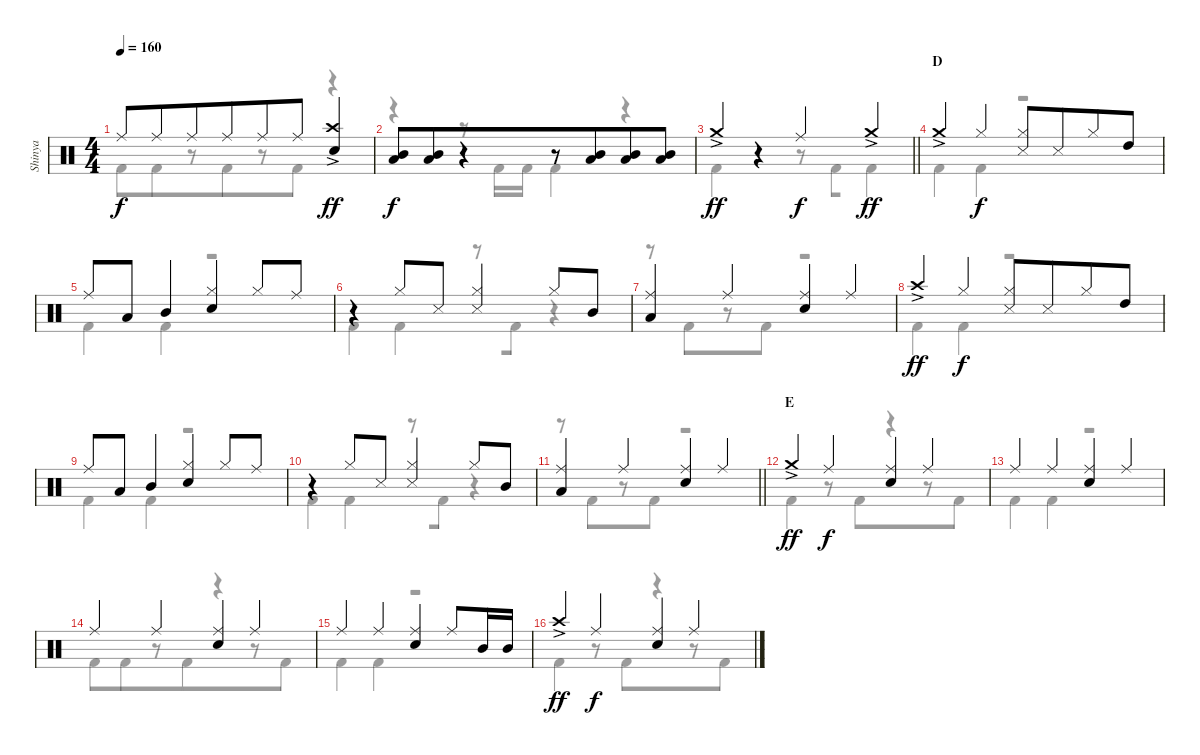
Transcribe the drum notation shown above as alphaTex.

\track ("Shinya" "Shinya") {instrument percussion}
\staff {score}
\articulation defaults
\voice
\ts (4 4)
\tempo 160
\clef neutral
\ks c "Ride (middle)".8{dy f beam merge} "Ride (middle)".8{beam merge} "Ride (middle)".8{beam merge} "Ride (middle)".8{beam merge} "Ride (middle)".8 "Ride (middle)".8{beam merge}
("Crash high (hit)"{ac} "Electric Snare (hit)").4{dy ff} |
("Mid Tom (hit)" "Low Tom (hit)").8{dy f beam merge} ("Mid Tom (hit)" "Low Tom (hit)").8{beam merge} r.4{beam merge} r.8{beam merge} ("Mid Tom (hit)" "Low Tom (hit)").8{beam merge} ("Mid Tom (hit)" "Low Tom (hit)").8{beam merge} ("Mid Tom (hit)" "Low Tom (hit)").8 |
\barLineRight lightlight "Crash medium (hit)"{ac}.4{dy ff}
r.4{beam merge} "Ride (middle)".4{dy f} "Crash medium (hit)"{ac}.4{dy ff} |
\section ("" "D")
"Crash medium (hit)"{ac}.4{beam merge} "Hi-Hat (closed)".4{dy f beam merge} ("Hi-Hat (closed)" "Snare (side stick) 3").8 "Snare (side stick) 3".8{beam merge} "Hi-Hat (closed)".8 "High Tom (hit)".8 |
"Ride (middle)".8{beam merge} "Low Tom (hit)".8{beam merge} "Mid Tom (hit)".4{beam merge} ("Hi-Hat (closed)" "Electric Snare (hit)").4{beam merge} "Hi-Hat (closed)".8 "Ride (middle)".8 |
r.4{beam merge} "Hi-Hat (closed)".8{beam merge} "Snare (side stick) 3".8{beam merge} ("Hi-Hat (closed)" "Snare (side stick) 3").4{beam merge} "Hi-Hat (closed)".8 "Mid Tom (hit)".8 |
("Ride (middle)" "Low Tom (hit)").4{beam merge} "Ride (middle)".4{beam merge} ("Ride (middle)" "Electric Snare (hit)").4{beam merge} "Ride (middle)".4 |
"Crash high (hit)"{ac}.4{dy ff beam merge} "Hi-Hat (closed)".4{dy f beam merge} ("Hi-Hat (closed)" "Snare (side stick) 3").8 "Snare (side stick) 3".8{beam merge} "Hi-Hat (closed)".8 "High Tom (hit)".8 |
"Ride (middle)".8{beam merge} "Low Tom (hit)".8{beam merge} "Mid Tom (hit)".4{beam merge} ("Hi-Hat (closed)" "Electric Snare (hit)").4{beam merge} "Hi-Hat (closed)".8 "Ride (middle)".8 |
r.4{beam merge} "Hi-Hat (closed)".8{beam merge} "Snare (side stick) 3".8{beam merge} ("Hi-Hat (closed)" "Snare (side stick) 3").4{beam merge} "Hi-Hat (closed)".8 "Mid Tom (hit)".8 |
\barLineRight lightlight
("Ride (middle)" "Low Tom (hit)").4{beam merge} "Ride (middle)".4{beam merge} ("Ride (middle)" "Electric Snare (hit)").4{beam merge} "Ride (middle)".4 |
\section ("" "E")
"Crash medium (hit)"{ac}.4{dy ff beam merge} "Ride (middle)".4{dy f beam merge} ("Ride (middle)" "Electric Snare (hit)").4{beam merge} "Ride (middle)".4 |
"Ride (middle)".4{beam merge} "Ride (middle)".4{beam merge} ("Ride (middle)" "Electric Snare (hit)").4{beam merge} "Ride (middle)".4 |
"Ride (middle)".4{beam merge} "Ride (middle)".4{beam merge} ("Ride (middle)" "Electric Snare (hit)").4{beam merge} "Ride (middle)".4 |
"Ride (middle)".4{beam merge} "Ride (middle)".4{beam merge} ("Ride (middle)" "Electric Snare (hit)").4{beam merge} "Ride (middle)".8 "Mid Tom (hit)".16 "Mid Tom (hit)".16 |
"Crash high (hit)"{ac}.4{dy ff beam merge} "Ride (middle)".4{dy f beam merge} ("Ride (middle)" "Electric Snare (hit)").4{beam merge} "Ride (middle)".4
\voice
\clef neutral
\ottava regular
\simile none
\ks c "Kick (hit) 2".8{dy f beam merge} "Kick (hit) 2".8{beam merge}
r.8{beam merge} "Kick (hit) 2".8{beam merge} r.8 "Kick (hit) 2".8{beam merge} r.4 |
r.4{beam merge} r.8 "Kick (hit) 2".16{beam merge} "Kick (hit) 2".16{beam merge} "Kick (hit) 2".4{beam merge} r.4 |
\barLineRight lightlight "Kick (hit) 2".4{beam merge}
r.4{beam merge} r.8{beam merge} "Kick (hit) 2".8{beam merge} "Kick (hit) 2".4 |
"Kick (hit) 2".4{beam merge} "Kick (hit) 2".4{beam merge} r.2 |
"Kick (hit) 2".4{beam merge} "Kick (hit) 2".4{beam merge} r.2 |
"Kick (hit) 2".4{beam merge} "Kick (hit) 2".4{beam merge} r.8{beam merge} "Kick (hit) 2".8{beam merge} r.4 |
r.8{beam merge} "Kick (hit) 2".8{beam merge} r.8{beam merge} "Kick (hit) 2".8{beam merge} r.2 |
"Kick (hit) 2".4{beam merge} "Kick (hit) 2".4{beam merge} r.2 |
"Kick (hit) 2".4{beam merge} "Kick (hit) 2".4{beam merge} r.2 |
"Kick (hit) 2".4{beam merge} "Kick (hit) 2".4{beam merge} r.8{beam merge} "Kick (hit) 2".8{beam merge} r.4 |
\barLineRight lightlight
r.8{beam merge} "Kick (hit) 2".8{beam merge} r.8{beam merge} "Kick (hit) 2".8{beam merge} r.2 |
"Kick (hit) 2".4{beam merge} r.8{beam merge} "Kick (hit) 2".8{beam merge} r.4{beam merge} r.8 "Kick (hit) 2".8 |
"Kick (hit) 2".4{beam merge} "Kick (hit) 2".4{beam merge} r.2 |
"Kick (hit) 2".8{beam merge} "Kick (hit) 2".8{beam merge} r.8{beam merge} "Kick (hit) 2".8{beam merge} r.4 r.8{beam merge} "Kick (hit) 2".8 |
"Kick (hit) 2".4{beam merge} "Kick (hit) 2".4{beam merge} r.2 |
"Kick (hit) 2".4{beam merge} r.8{beam merge} "Kick (hit) 2".8{beam merge} r.4{beam merge} r.8 "Kick (hit) 2".8
